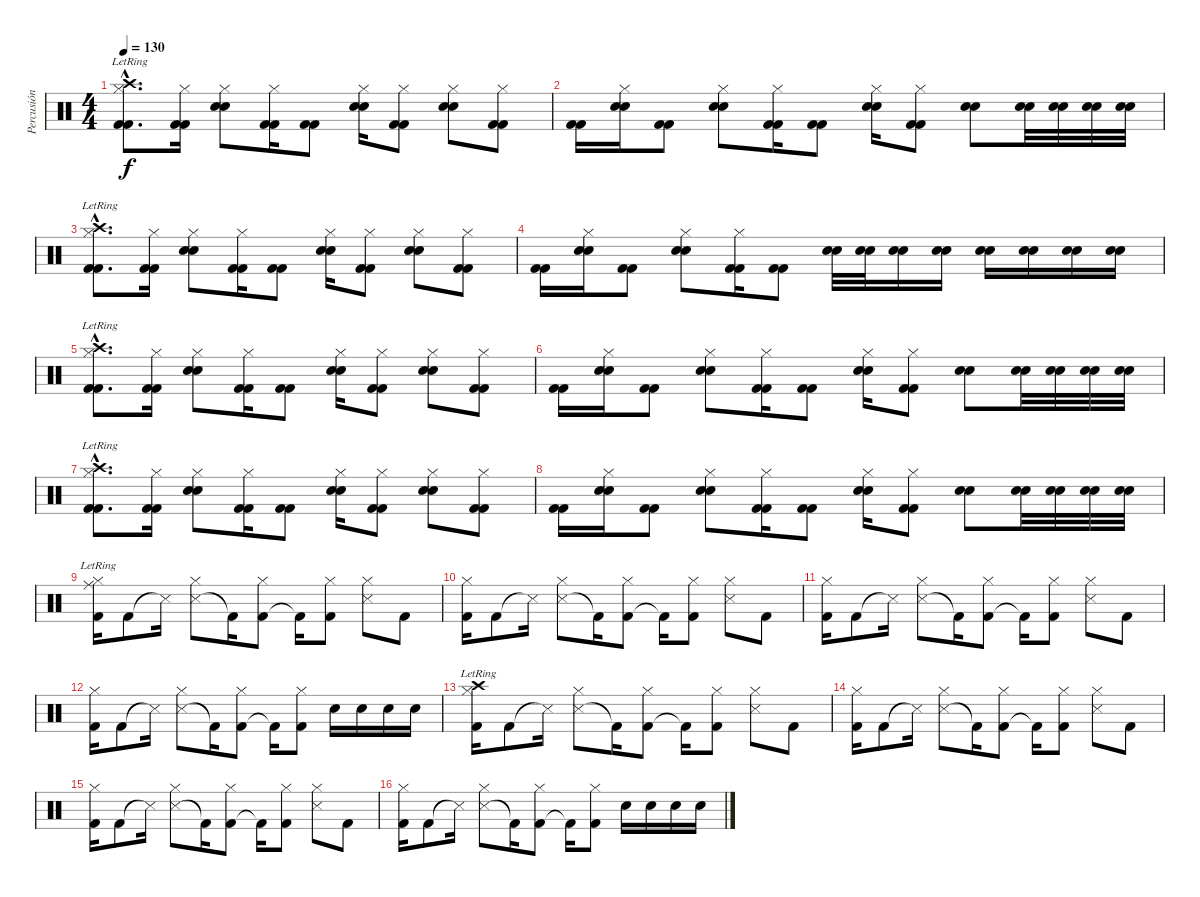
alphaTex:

\track ("Percusión" "Percusión") {instrument percussion}
\staff {score}
\articulation defaults
\ts (4 4)
\tempo 130
\clef neutral
\ks c
("Kick (hit) 2"{hac} "Kick (hit) 2"{hac} "Hi-Hat (closed)"{hac} "Crash high (hit)"{hac lr}).8{d dy f} ("Kick (hit) 2" "Kick (hit) 2" "Hi-Hat (closed)").16 ("Snare (hit) 2" "Snare (hit) 2" "Hi-Hat (closed)").8 ("Kick (hit) 2" "Kick (hit) 2" "Hi-Hat (closed)").16 ("Kick (hit) 2" "Kick (hit) 2").8 ("Snare (hit) 2" "Snare (hit) 2" "Hi-Hat (closed)").16 ("Kick (hit) 2" "Kick (hit) 2" "Hi-Hat (closed)").8 ("Snare (hit) 2" "Snare (hit) 2" "Hi-Hat (closed)").8 ("Kick (hit) 2" "Kick (hit) 2" "Hi-Hat (closed)").8 |
("Kick (hit) 2" "Kick (hit) 2").16 ("Snare (hit) 2" "Snare (hit) 2" "Hi-Hat (closed)").16 ("Kick (hit) 2" "Kick (hit) 2").8 ("Snare (hit) 2" "Snare (hit) 2" "Hi-Hat (closed)").8 ("Kick (hit) 2" "Kick (hit) 2" "Hi-Hat (closed)").16 ("Kick (hit) 2" "Kick (hit) 2").8 ("Snare (hit) 2" "Snare (hit) 2" "Hi-Hat (closed)").16 ("Kick (hit) 2" "Kick (hit) 2" "Hi-Hat (closed)").8 ("Snare (hit) 2" "Snare (hit) 2").8 ("Snare (hit) 2" "Snare (hit) 2").32 ("Snare (hit) 2" "Snare (hit) 2").32 ("Snare (hit) 2" "Snare (hit) 2").32 ("Snare (hit) 2" "Snare (hit) 2").32 |
("Kick (hit) 2"{hac} "Kick (hit) 2"{hac} "Hi-Hat (closed)"{hac} "Crash high (hit)"{hac lr}).8{d} ("Kick (hit) 2" "Kick (hit) 2" "Hi-Hat (closed)").16 ("Snare (hit) 2" "Snare (hit) 2" "Hi-Hat (closed)").8 ("Kick (hit) 2" "Kick (hit) 2" "Hi-Hat (closed)").16 ("Kick (hit) 2" "Kick (hit) 2").8 ("Snare (hit) 2" "Snare (hit) 2" "Hi-Hat (closed)").16 ("Kick (hit) 2" "Kick (hit) 2" "Hi-Hat (closed)").8 ("Snare (hit) 2" "Snare (hit) 2" "Hi-Hat (closed)").8 ("Kick (hit) 2" "Kick (hit) 2" "Hi-Hat (closed)").8 |
("Kick (hit) 2" "Kick (hit) 2").16 ("Snare (hit) 2" "Snare (hit) 2" "Hi-Hat (closed)").16 ("Kick (hit) 2" "Kick (hit) 2").8 ("Snare (hit) 2" "Snare (hit) 2" "Hi-Hat (closed)").8 ("Kick (hit) 2" "Kick (hit) 2" "Hi-Hat (closed)").16 ("Kick (hit) 2" "Kick (hit) 2").8 ("Snare (hit) 2" "Snare (hit) 2").32 ("Snare (hit) 2" "Snare (hit) 2").32 ("Snare (hit) 2" "Snare (hit) 2").16 ("Snare (hit) 2" "Snare (hit) 2").16 ("Snare (hit) 2" "Snare (hit) 2").16 ("Snare (hit) 2" "Snare (hit) 2").16 ("Snare (hit) 2" "Snare (hit) 2").16 ("Snare (hit) 2" "Snare (hit) 2").16 |
("Kick (hit) 2"{hac} "Kick (hit) 2"{hac} "Hi-Hat (closed)"{hac} "Crash high (hit)"{hac lr}).8{d} ("Kick (hit) 2" "Kick (hit) 2" "Hi-Hat (closed)").16 ("Snare (hit) 2" "Snare (hit) 2" "Hi-Hat (closed)").8 ("Kick (hit) 2" "Kick (hit) 2" "Hi-Hat (closed)").16 ("Kick (hit) 2" "Kick (hit) 2").8 ("Snare (hit) 2" "Snare (hit) 2" "Hi-Hat (closed)").16 ("Kick (hit) 2" "Kick (hit) 2" "Hi-Hat (closed)").8 ("Snare (hit) 2" "Snare (hit) 2" "Hi-Hat (closed)").8 ("Kick (hit) 2" "Kick (hit) 2" "Hi-Hat (closed)").8 |
("Kick (hit) 2" "Kick (hit) 2").16 ("Snare (hit) 2" "Snare (hit) 2" "Hi-Hat (closed)").16 ("Kick (hit) 2" "Kick (hit) 2").8 ("Snare (hit) 2" "Snare (hit) 2" "Hi-Hat (closed)").8 ("Kick (hit) 2" "Kick (hit) 2" "Hi-Hat (closed)").16 ("Kick (hit) 2" "Kick (hit) 2").8 ("Snare (hit) 2" "Snare (hit) 2" "Hi-Hat (closed)").16 ("Kick (hit) 2" "Kick (hit) 2" "Hi-Hat (closed)").8 ("Snare (hit) 2" "Snare (hit) 2").8 ("Snare (hit) 2" "Snare (hit) 2").32 ("Snare (hit) 2" "Snare (hit) 2").32 ("Snare (hit) 2" "Snare (hit) 2").32 ("Snare (hit) 2" "Snare (hit) 2").32 |
("Kick (hit) 2"{hac} "Kick (hit) 2"{hac} "Hi-Hat (closed)"{hac} "Crash high (hit)"{hac lr}).8{d} ("Kick (hit) 2" "Kick (hit) 2" "Hi-Hat (closed)").16 ("Snare (hit) 2" "Snare (hit) 2" "Hi-Hat (closed)").8 ("Kick (hit) 2" "Kick (hit) 2" "Hi-Hat (closed)").16 ("Kick (hit) 2" "Kick (hit) 2").8 ("Snare (hit) 2" "Snare (hit) 2" "Hi-Hat (closed)").16 ("Kick (hit) 2" "Kick (hit) 2" "Hi-Hat (closed)").8 ("Snare (hit) 2" "Snare (hit) 2" "Hi-Hat (closed)").8 ("Kick (hit) 2" "Kick (hit) 2" "Hi-Hat (closed)").8 |
("Kick (hit) 2" "Kick (hit) 2").16 ("Snare (hit) 2" "Snare (hit) 2" "Hi-Hat (closed)").16 ("Kick (hit) 2" "Kick (hit) 2").8 ("Snare (hit) 2" "Snare (hit) 2" "Hi-Hat (closed)").8 ("Kick (hit) 2" "Kick (hit) 2" "Hi-Hat (closed)").16 ("Kick (hit) 2" "Kick (hit) 2").8 ("Snare (hit) 2" "Snare (hit) 2" "Hi-Hat (closed)").16 ("Kick (hit) 2" "Kick (hit) 2" "Hi-Hat (closed)").8 ("Snare (hit) 2" "Snare (hit) 2").8 ("Snare (hit) 2" "Snare (hit) 2").32 ("Snare (hit) 2" "Snare (hit) 2").32 ("Snare (hit) 2" "Snare (hit) 2").32 ("Snare (hit) 2" "Snare (hit) 2").32 |
("Kick (hit) 2" "Hi-Hat (closed)" "Ride (middle)"{lr}).16 "Kick (hit) 2".8 "Snare (side stick) 3"{t}.16 ("Snare (side stick) 3" "Hi-Hat (closed)").8 "Kick (hit) 2"{t}.16 ("Kick (hit) 2" "Hi-Hat (closed)").8 "Kick (hit) 2"{t}.16 ("Kick (hit) 2" "Hi-Hat (closed)").8 ("Snare (side stick) 3" "Hi-Hat (closed)").8 "Kick (hit) 2".8 |
("Kick (hit) 2" "Hi-Hat (closed)").16 "Kick (hit) 2".8 "Snare (side stick) 3"{t}.16 ("Snare (side stick) 3" "Hi-Hat (closed)").8 "Kick (hit) 2"{t}.16 ("Kick (hit) 2" "Hi-Hat (closed)").8 "Kick (hit) 2"{t}.16 ("Kick (hit) 2" "Hi-Hat (closed)").8 ("Snare (side stick) 3" "Hi-Hat (closed)").8 "Kick (hit) 2".8 |
("Kick (hit) 2" "Hi-Hat (closed)").16 "Kick (hit) 2".8 "Snare (side stick) 3"{t}.16 ("Snare (side stick) 3" "Hi-Hat (closed)").8 "Kick (hit) 2"{t}.16 ("Kick (hit) 2" "Hi-Hat (closed)").8 "Kick (hit) 2"{t}.16 ("Kick (hit) 2" "Hi-Hat (closed)").8 ("Snare (side stick) 3" "Hi-Hat (closed)").8 "Kick (hit) 2".8 |
("Kick (hit) 2" "Hi-Hat (closed)").16 "Kick (hit) 2".8 "Snare (side stick) 3"{t}.16 ("Snare (side stick) 3" "Hi-Hat (closed)").8 "Kick (hit) 2"{t}.16 ("Kick (hit) 2" "Hi-Hat (closed)").8 "Kick (hit) 2"{t}.16 ("Kick (hit) 2" "Hi-Hat (closed)").8 "Snare (hit) 2".16 "Snare (hit) 2".16 "Snare (hit) 2".16 "Snare (hit) 2".16 |
("Kick (hit) 2" "Hi-Hat (closed)" "Crash high (hit)"{lr}).16 "Kick (hit) 2".8 "Snare (side stick) 3"{t}.16 ("Snare (side stick) 3" "Hi-Hat (closed)").8 "Kick (hit) 2"{t}.16 ("Kick (hit) 2" "Hi-Hat (closed)").8 "Kick (hit) 2"{t}.16 ("Kick (hit) 2" "Hi-Hat (closed)").8 ("Snare (side stick) 3" "Hi-Hat (closed)").8 "Kick (hit) 2".8 |
("Kick (hit) 2" "Hi-Hat (closed)").16 "Kick (hit) 2".8 "Snare (side stick) 3"{t}.16 ("Snare (side stick) 3" "Hi-Hat (closed)").8 "Kick (hit) 2"{t}.16 ("Kick (hit) 2" "Hi-Hat (closed)").8 "Kick (hit) 2"{t}.16 ("Kick (hit) 2" "Hi-Hat (closed)").8 ("Snare (side stick) 3" "Hi-Hat (closed)").8 "Kick (hit) 2".8 |
("Kick (hit) 2" "Hi-Hat (closed)").16 "Kick (hit) 2".8 "Snare (side stick) 3"{t}.16 ("Snare (side stick) 3" "Hi-Hat (closed)").8 "Kick (hit) 2"{t}.16 ("Kick (hit) 2" "Hi-Hat (closed)").8 "Kick (hit) 2"{t}.16 ("Kick (hit) 2" "Hi-Hat (closed)").8 ("Snare (side stick) 3" "Hi-Hat (closed)").8 "Kick (hit) 2".8 |
("Kick (hit) 2" "Hi-Hat (closed)").16 "Kick (hit) 2".8 "Snare (side stick) 3"{t}.16 ("Snare (side stick) 3" "Hi-Hat (closed)").8 "Kick (hit) 2"{t}.16 ("Kick (hit) 2" "Hi-Hat (closed)").8 "Kick (hit) 2"{t}.16 ("Kick (hit) 2" "Hi-Hat (closed)").8 "Snare (hit) 2".16 "Snare (hit) 2".16 "Snare (hit) 2".16 "Snare (hit) 2".16
